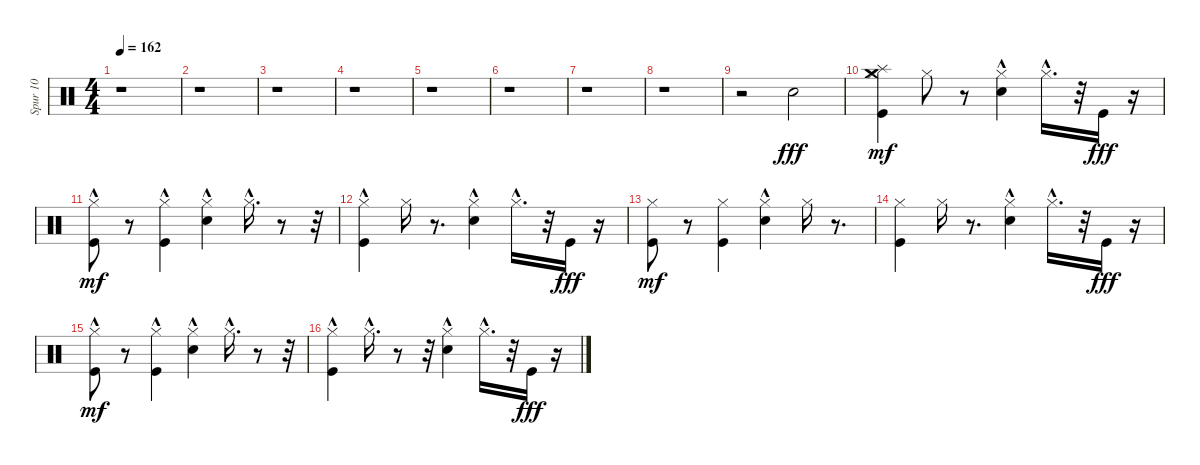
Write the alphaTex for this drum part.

\track ("Spur 10" "Spur 10") {instrument percussion}
\staff {score}
\articulation defaults
\ts (4 4)
\tempo 162
\clef neutral
\ks c
r.1{dy fff} |
r.1 |
r.1 |
r.1 |
r.1 |
r.1 |
r.1 |
r.1 |
r.2 "Snare (hit) 2".2 |
("Kick (hit)" "Crash medium (hit)" "Splash (hit)" "Hi-Hat (closed)").4{dy mf} "Hi-Hat (closed)".8 r.8 ("Snare (hit) 2"{hac} "Hi-Hat (closed)").4 "Hi-Hat (closed)"{hac}.16{d} r.32 "Kick (hit)".16{dy fff} r.16 |
("Kick (hit)" "Hi-Hat (closed)"{hac}).8{dy mf} r.8 ("Kick (hit)" "Hi-Hat (closed)"{hac}).4 ("Snare (hit) 2"{hac} "Hi-Hat (closed)"{hac}).4 "Hi-Hat (closed)"{hac}.16{d} r.8 r.32 |
("Kick (hit)" "Hi-Hat (closed)"{hac}).4 "Hi-Hat (closed)".16 r.8{d} ("Snare (hit) 2"{hac} "Hi-Hat (closed)").4 "Hi-Hat (closed)"{hac}.16{d} r.32 "Kick (hit)".16{dy fff} r.16 |
("Kick (hit)" "Hi-Hat (closed)").8{dy mf} r.8 ("Kick (hit)" "Hi-Hat (closed)").4 ("Snare (hit) 2"{hac} "Hi-Hat (closed)"{hac}).4 "Hi-Hat (closed)".16 r.8{d} |
("Kick (hit)" "Hi-Hat (closed)").4 "Hi-Hat (closed)".16 r.8{d} ("Snare (hit) 2"{hac} "Hi-Hat (closed)"{hac}).4 "Hi-Hat (closed)"{hac}.16{d} r.32 "Kick (hit)".16{dy fff} r.16 |
("Kick (hit)" "Hi-Hat (closed)"{hac}).8{dy mf} r.8 ("Kick (hit)" "Hi-Hat (closed)"{hac}).4 ("Snare (hit) 2"{hac} "Hi-Hat (closed)"{hac}).4 "Hi-Hat (closed)"{hac}.16{d} r.8 r.32 |
("Kick (hit)" "Hi-Hat (closed)"{hac}).4 "Hi-Hat (closed)"{hac}.16{d} r.8 r.32 ("Snare (hit) 2"{hac} "Hi-Hat (closed)"{hac}).4 "Hi-Hat (closed)"{hac}.16{d} r.32 "Kick (hit)".16{dy fff} r.16
